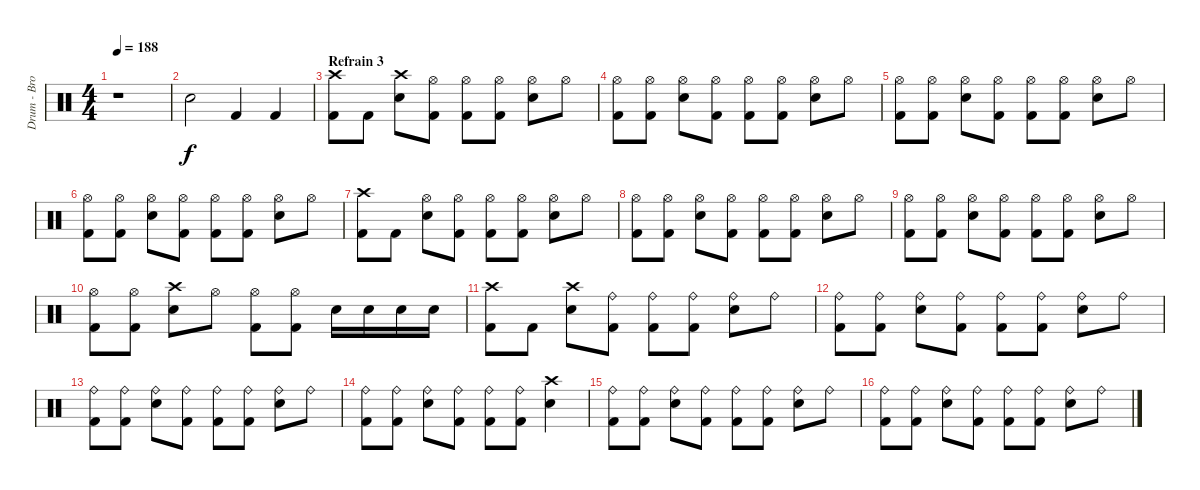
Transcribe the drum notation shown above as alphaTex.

\track ("Drum - Brooks Wackerman" "Drum - Bro") {instrument percussion}
\staff {score}
\articulation defaults
\ts (4 4)
\tempo 188
\clef neutral
\ks c
r.1{dy f} |
"Electric Snare (hit)".2 "Kick (hit) 2".4 "Kick (hit) 2".4 |
\section ("" "Refrain 3")
("Crash high (hit)" "Kick (hit) 2").8 "Kick (hit) 2".8 ("Crash high (hit)" "Electric Snare (hit)").8 ("Hi-Hat (open)" "Kick (hit) 2").8 ("Hi-Hat (open)" "Kick (hit) 2").8 ("Hi-Hat (open)" "Kick (hit) 2").8 ("Hi-Hat (open)" "Electric Snare (hit)").8 "Hi-Hat (open)".8 |
("Hi-Hat (open)" "Kick (hit) 2").8 ("Hi-Hat (open)" "Kick (hit) 2").8 ("Hi-Hat (open)" "Electric Snare (hit)").8 ("Hi-Hat (open)" "Kick (hit) 2").8 ("Hi-Hat (open)" "Kick (hit) 2").8 ("Hi-Hat (open)" "Kick (hit) 2").8 ("Hi-Hat (open)" "Electric Snare (hit)").8 "Hi-Hat (open)".8 |
("Hi-Hat (open)" "Kick (hit) 2").8 ("Hi-Hat (open)" "Kick (hit) 2").8 ("Hi-Hat (open)" "Electric Snare (hit)").8 ("Hi-Hat (open)" "Kick (hit) 2").8 ("Hi-Hat (open)" "Kick (hit) 2").8 ("Hi-Hat (open)" "Kick (hit) 2").8 ("Hi-Hat (open)" "Electric Snare (hit)").8 "Hi-Hat (open)".8 |
("Hi-Hat (open)" "Kick (hit) 2").8 ("Hi-Hat (open)" "Kick (hit) 2").8 ("Hi-Hat (open)" "Electric Snare (hit)").8 ("Hi-Hat (open)" "Kick (hit) 2").8 ("Hi-Hat (open)" "Kick (hit) 2").8 ("Hi-Hat (open)" "Kick (hit) 2").8 ("Hi-Hat (open)" "Electric Snare (hit)").8 "Hi-Hat (open)".8 |
("Crash high (hit)" "Kick (hit) 2").8 "Kick (hit) 2".8 ("Hi-Hat (open)" "Electric Snare (hit)").8 ("Hi-Hat (open)" "Kick (hit) 2").8 ("Hi-Hat (open)" "Kick (hit) 2").8 ("Hi-Hat (open)" "Kick (hit) 2").8 ("Hi-Hat (open)" "Electric Snare (hit)").8 "Hi-Hat (open)".8 |
("Hi-Hat (open)" "Kick (hit) 2").8 ("Hi-Hat (open)" "Kick (hit) 2").8 ("Hi-Hat (open)" "Electric Snare (hit)").8 ("Hi-Hat (open)" "Kick (hit) 2").8 ("Hi-Hat (open)" "Kick (hit) 2").8 ("Hi-Hat (open)" "Kick (hit) 2").8 ("Hi-Hat (open)" "Electric Snare (hit)").8 "Hi-Hat (open)".8 |
("Hi-Hat (open)" "Kick (hit) 2").8 ("Hi-Hat (open)" "Kick (hit) 2").8 ("Hi-Hat (open)" "Electric Snare (hit)").8 ("Hi-Hat (open)" "Kick (hit) 2").8 ("Hi-Hat (open)" "Kick (hit) 2").8 ("Hi-Hat (open)" "Kick (hit) 2").8 ("Hi-Hat (open)" "Electric Snare (hit)").8 "Hi-Hat (open)".8 |
("Hi-Hat (open)" "Kick (hit) 2").8 ("Hi-Hat (open)" "Kick (hit) 2").8 ("Crash high (hit)" "Electric Snare (hit)").8 "Hi-Hat (open)".8 ("Hi-Hat (open)" "Kick (hit) 2").8 ("Hi-Hat (open)" "Kick (hit) 2").8 "Electric Snare (hit)".16 "Electric Snare (hit)".16 "Electric Snare (hit)".16 "Electric Snare (hit)".16 |
("Crash high (hit)" "Kick (hit) 2").8 "Kick (hit) 2".8 ("Crash high (hit)" "Electric Snare (hit)").8 ("Ride (bell)" "Kick (hit) 2").8 ("Ride (bell)" "Kick (hit) 2").8 ("Ride (bell)" "Kick (hit) 2").8 ("Ride (bell)" "Electric Snare (hit)").8 "Ride (bell)".8 |
("Ride (bell)" "Kick (hit) 2").8 ("Ride (bell)" "Kick (hit) 2").8 ("Ride (bell)" "Electric Snare (hit)").8 ("Ride (bell)" "Kick (hit) 2").8 ("Ride (bell)" "Kick (hit) 2").8 ("Ride (bell)" "Kick (hit) 2").8 ("Ride (bell)" "Electric Snare (hit)").8 "Ride (bell)".8 |
("Ride (bell)" "Kick (hit) 2").8 ("Ride (bell)" "Kick (hit) 2").8 ("Ride (bell)" "Electric Snare (hit)").8 ("Ride (bell)" "Kick (hit) 2").8 ("Ride (bell)" "Kick (hit) 2").8 ("Ride (bell)" "Kick (hit) 2").8 ("Ride (bell)" "Electric Snare (hit)").8 "Ride (bell)".8 |
("Ride (bell)" "Kick (hit) 2").8 ("Ride (bell)" "Kick (hit) 2").8 ("Ride (bell)" "Electric Snare (hit)").8 ("Ride (bell)" "Kick (hit) 2").8 ("Ride (bell)" "Kick (hit) 2").8 ("Ride (bell)" "Kick (hit) 2").8 ("Crash high (hit)" "Electric Snare (hit)").4 |
("Ride (bell)" "Kick (hit) 2").8 ("Ride (bell)" "Kick (hit) 2").8 ("Ride (bell)" "Electric Snare (hit)").8 ("Ride (bell)" "Kick (hit) 2").8 ("Ride (bell)" "Kick (hit) 2").8 ("Ride (bell)" "Kick (hit) 2").8 ("Ride (bell)" "Electric Snare (hit)").8 "Ride (bell)".8 |
("Ride (bell)" "Kick (hit) 2").8 ("Ride (bell)" "Kick (hit) 2").8 ("Ride (bell)" "Electric Snare (hit)").8 ("Ride (bell)" "Kick (hit) 2").8 ("Ride (bell)" "Kick (hit) 2").8 ("Ride (bell)" "Kick (hit) 2").8 ("Ride (bell)" "Electric Snare (hit)").8 "Ride (bell)".8
